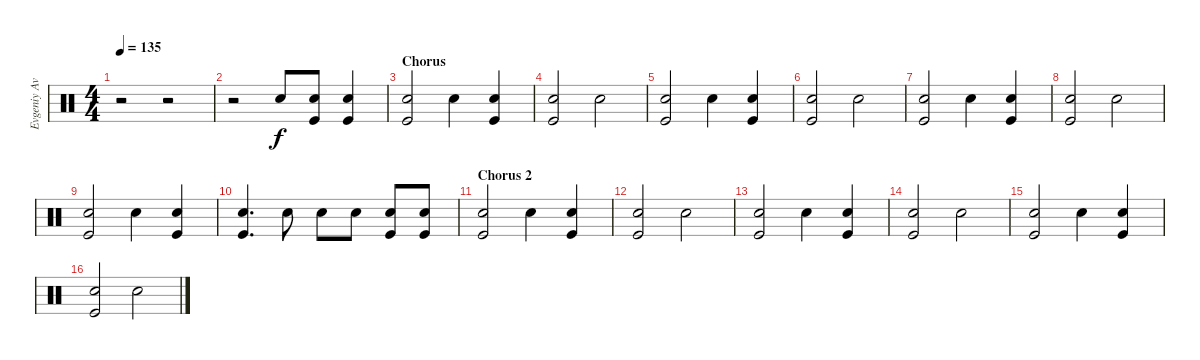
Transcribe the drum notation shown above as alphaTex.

\track ("Evgeniy Avdotin" "Evgeniy Av") {instrument percussion}
\staff {score}
\articulation defaults
\ts (4 4)
\tempo 135
\clef neutral
\ks c
r.2{dy f} r.2 |
r.2 "Snare (hit) 2".8 ("Snare (hit) 2" "Kick (hit)").8 ("Snare (hit) 2" "Kick (hit)").4 |
\section ("" "Chorus")
("Snare (hit) 2" "Kick (hit)").2 "Snare (hit) 2".4 ("Snare (hit) 2" "Kick (hit)").4 |
("Snare (hit) 2" "Kick (hit)").2 "Snare (hit) 2".2 |
("Snare (hit) 2" "Kick (hit)").2 "Snare (hit) 2".4 ("Snare (hit) 2" "Kick (hit)").4 |
("Snare (hit) 2" "Kick (hit)").2 "Snare (hit) 2".2 |
("Snare (hit) 2" "Kick (hit)").2 "Snare (hit) 2".4 ("Snare (hit) 2" "Kick (hit)").4 |
("Snare (hit) 2" "Kick (hit)").2 "Snare (hit) 2".2 |
("Snare (hit) 2" "Kick (hit)").2 "Snare (hit) 2".4 ("Snare (hit) 2" "Kick (hit)").4 |
("Snare (hit) 2" "Kick (hit)").4{d} "Snare (hit) 2".8 "Snare (hit) 2".8 "Snare (hit) 2".8 ("Snare (hit) 2" "Kick (hit)").8 ("Snare (hit) 2" "Kick (hit)").8 |
\section ("" "Chorus 2")
("Snare (hit) 2" "Kick (hit)").2 "Snare (hit) 2".4 ("Snare (hit) 2" "Kick (hit)").4 |
("Snare (hit) 2" "Kick (hit)").2 "Snare (hit) 2".2 |
("Snare (hit) 2" "Kick (hit)").2 "Snare (hit) 2".4 ("Snare (hit) 2" "Kick (hit)").4 |
("Snare (hit) 2" "Kick (hit)").2 "Snare (hit) 2".2 |
("Snare (hit) 2" "Kick (hit)").2 "Snare (hit) 2".4 ("Snare (hit) 2" "Kick (hit)").4 |
("Snare (hit) 2" "Kick (hit)").2 "Snare (hit) 2".2
